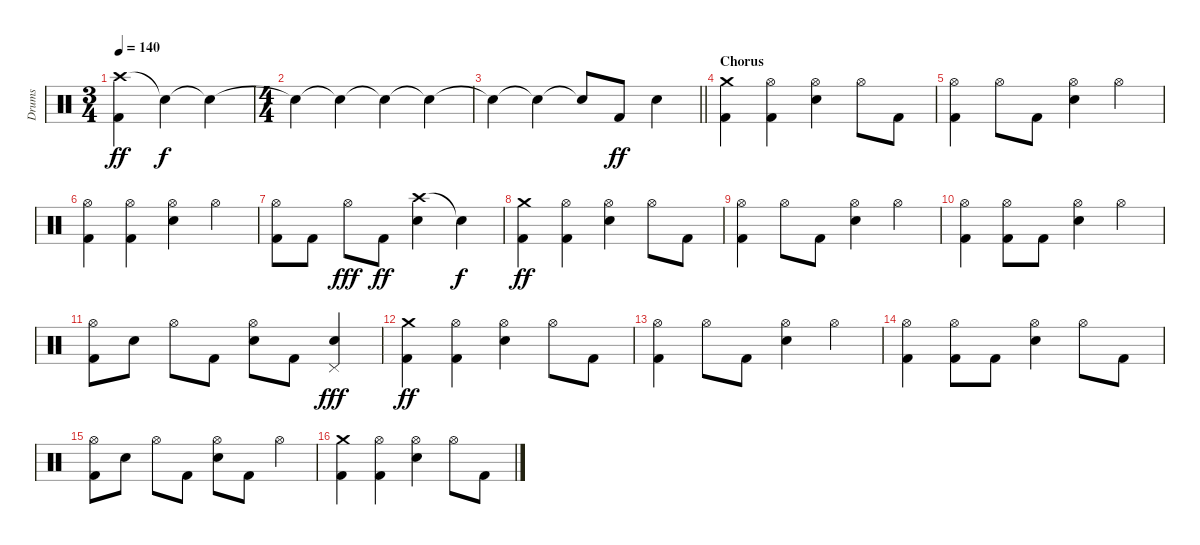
\track ("Drums" "Drums") {instrument percussion}
\staff {score}
\articulation defaults
\ts (3 4)
\tempo 140
\clef neutral
\ks c
("Crash high (hit)" "Kick (hit) 2").4{dy ff} "Snare (hit)"{t}.4{dy f} "Snare (hit)"{t}.4 |
\ts (4 4)
"Snare (hit)"{t}.4 "Snare (hit)"{t}.4 "Snare (hit)"{t}.4 "Snare (hit)"{t}.4 |
\barLineRight lightlight "Snare (hit)"{t}.4 "Snare (hit)"{t}.4 "Snare (hit)"{t}.8 "Kick (hit) 2".8{dy ff} "Snare (hit) 2".4
|
\section ("" "Chorus")
("Crash medium (hit)" "Kick (hit) 2").4 ("Hi-Hat (open)" "Kick (hit) 2").4 ("Hi-Hat (open)" "Snare (hit) 2").4 "Hi-Hat (open)".8 "Kick (hit) 2".8 |
("Hi-Hat (open)" "Kick (hit) 2").4 "Hi-Hat (open)".8 "Kick (hit) 2".8 ("Hi-Hat (open)" "Snare (hit) 2").4 "Hi-Hat (open)".4 |
("Hi-Hat (open)" "Kick (hit) 2").4 ("Hi-Hat (open)" "Kick (hit) 2").4 ("Hi-Hat (open)" "Snare (hit) 2").4 "Hi-Hat (open)".4 |
("Hi-Hat (open)" "Kick (hit) 2").8 "Kick (hit) 2".8 "Hi-Hat (open)".8{dy fff} "Kick (hit) 2".8{dy ff} ("Crash high (hit)" "Snare (hit) 2").4 "Snare (hit)"{t}.4{dy f} |
("Crash medium (hit)" "Kick (hit) 2").4{dy ff} ("Hi-Hat (open)" "Kick (hit) 2").4 ("Hi-Hat (open)" "Snare (hit) 2").4 "Hi-Hat (open)".8 "Kick (hit) 2".8 |
("Hi-Hat (open)" "Kick (hit) 2").4 "Hi-Hat (open)".8 "Kick (hit) 2".8 ("Hi-Hat (open)" "Snare (hit) 2").4 "Hi-Hat (open)".4 |
("Hi-Hat (open)" "Kick (hit) 2").4 ("Hi-Hat (open)" "Kick (hit) 2").8 "Kick (hit) 2".8 ("Hi-Hat (open)" "Snare (hit) 2").4 "Hi-Hat (open)".4 |
("Hi-Hat (open)" "Kick (hit) 2").8 "Snare (hit) 2".8 "Hi-Hat (open)".8 "Kick (hit) 2".8 ("Hi-Hat (open)" "Snare (hit) 2").8 "Kick (hit) 2".8 ("Pedal Hi-Hat (hit)" "Snare (hit) 2").4{dy fff} |
("Crash medium (hit)" "Kick (hit) 2").4{dy ff} ("Hi-Hat (open)" "Kick (hit) 2").4 ("Hi-Hat (open)" "Snare (hit) 2").4 "Hi-Hat (open)".8 "Kick (hit) 2".8 |
("Hi-Hat (open)" "Kick (hit) 2").4 "Hi-Hat (open)".8 "Kick (hit) 2".8 ("Hi-Hat (open)" "Snare (hit) 2").4 "Hi-Hat (open)".4 |
("Hi-Hat (open)" "Kick (hit) 2").4 ("Hi-Hat (open)" "Kick (hit) 2").8 "Kick (hit) 2".8 ("Hi-Hat (open)" "Snare (hit) 2").4 "Hi-Hat (open)".8 "Kick (hit) 2".8 |
("Hi-Hat (open)" "Kick (hit) 2").8 "Snare (hit) 2".8 "Hi-Hat (open)".8 "Kick (hit) 2".8 ("Hi-Hat (open)" "Snare (hit) 2").8 "Kick (hit) 2".8 "Hi-Hat (open)".4 |
("Crash medium (hit)" "Kick (hit) 2").4 ("Hi-Hat (open)" "Kick (hit) 2").4 ("Hi-Hat (open)" "Snare (hit) 2").4 "Hi-Hat (open)".8 "Kick (hit) 2".8
